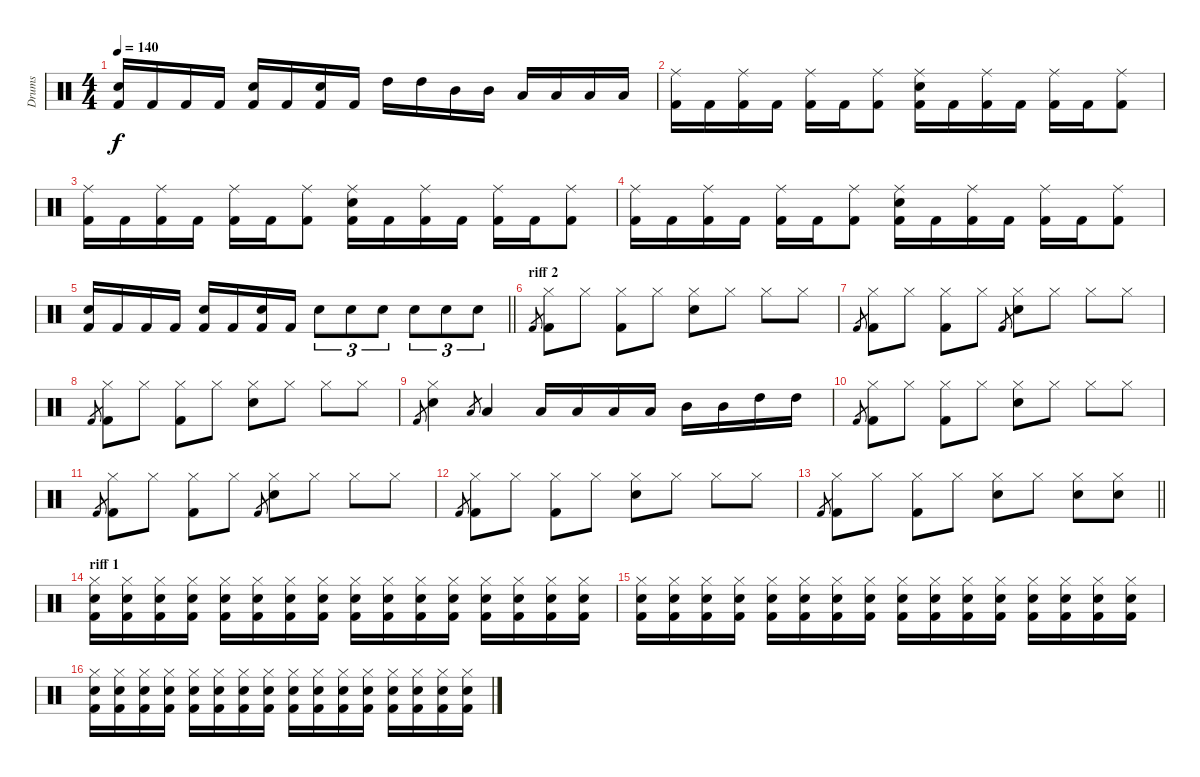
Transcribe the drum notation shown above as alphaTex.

\track ("Drums" "Drums") {instrument percussion}
\staff {score}
\articulation defaults
\ts (4 4)
\tempo 140
\clef neutral
\ks c
("Kick (hit) 2" "Snare (hit) 2").16{dy f} "Kick (hit) 2".16 "Kick (hit) 2".16 "Kick (hit) 2".16 ("Kick (hit) 2" "Snare (hit) 2").16 "Kick (hit) 2".16 ("Kick (hit) 2" "Snare (hit) 2").16 "Kick (hit) 2".16 "High Tom (hit)".16 "High Tom (hit)".16 "Mid Tom (hit)".16 "Mid Tom (hit)".16 "Low Tom (hit)".16 "Low Tom (hit)".16 "Low Floor Tom (hit)".16 "Low Floor Tom (hit)".16 |
("Kick (hit) 2" "Ride (middle)").16 "Kick (hit) 2".16 ("Kick (hit) 2" "Ride (middle)").16 "Kick (hit) 2".16 ("Kick (hit) 2" "Ride (middle)").16 "Kick (hit) 2".16 ("Kick (hit) 2" "Ride (middle)").8 ("Kick (hit) 2" "Snare (hit) 2" "Ride (middle)").16 "Kick (hit) 2".16 ("Kick (hit) 2" "Ride (middle)").16 "Kick (hit) 2".16 ("Kick (hit) 2" "Ride (middle)").16 "Kick (hit) 2".16 ("Kick (hit) 2" "Ride (middle)").8 |
("Kick (hit) 2" "Ride (middle)").16 "Kick (hit) 2".16 ("Kick (hit) 2" "Ride (middle)").16 "Kick (hit) 2".16 ("Kick (hit) 2" "Ride (middle)").16 "Kick (hit) 2".16 ("Kick (hit) 2" "Ride (middle)").8 ("Kick (hit) 2" "Snare (hit) 2" "Ride (middle)").16 "Kick (hit) 2".16 ("Kick (hit) 2" "Ride (middle)").16 "Kick (hit) 2".16 ("Kick (hit) 2" "Ride (middle)").16 "Kick (hit) 2".16 ("Kick (hit) 2" "Ride (middle)").8 |
("Kick (hit) 2" "Ride (middle)").16 "Kick (hit) 2".16 ("Kick (hit) 2" "Ride (middle)").16 "Kick (hit) 2".16 ("Kick (hit) 2" "Ride (middle)").16 "Kick (hit) 2".16 ("Kick (hit) 2" "Ride (middle)").8 ("Kick (hit) 2" "Snare (hit) 2" "Ride (middle)").16 "Kick (hit) 2".16 ("Kick (hit) 2" "Ride (middle)").16 "Kick (hit) 2".16 ("Kick (hit) 2" "Ride (middle)").16 "Kick (hit) 2".16 ("Kick (hit) 2" "Ride (middle)").8 |
\barLineRight lightlight
("Kick (hit) 2" "Snare (hit) 2").16 "Kick (hit) 2".16 "Kick (hit) 2".16 "Kick (hit) 2".16 ("Kick (hit) 2" "Snare (hit) 2").16 "Kick (hit) 2".16 ("Kick (hit) 2" "Snare (hit) 2").16 "Kick (hit) 2".16 "Snare (hit) 2".8{tu (3 2)} "Snare (hit) 2".8{tu (3 2)} "Snare (hit) 2".8{tu (3 2)} "Snare (hit) 2".8{tu (3 2)} "Snare (hit) 2".8{tu (3 2)} "Snare (hit) 2".8{tu (3 2)} |
\section ("" "riff 2")
"Kick (hit) 2".8{gr} ("Kick (hit) 2" "Hi-Hat (closed)").8 "Hi-Hat (closed)".8 ("Kick (hit) 2" "Hi-Hat (closed)").8 "Hi-Hat (closed)".8 ("Snare (hit) 2" "Hi-Hat (closed)").8 "Hi-Hat (closed)".8 "Hi-Hat (closed)".8 "Hi-Hat (closed)".8 |
"Kick (hit) 2".8{gr} ("Kick (hit) 2" "Hi-Hat (closed)").8 "Hi-Hat (closed)".8 ("Kick (hit) 2" "Hi-Hat (closed)").8 "Hi-Hat (closed)".8 "Kick (hit) 2".8{gr} ("Snare (hit) 2" "Hi-Hat (closed)").8 "Hi-Hat (closed)".8 "Hi-Hat (closed)".8 "Hi-Hat (closed)".8 |
"Kick (hit) 2".8{gr} ("Kick (hit) 2" "Hi-Hat (closed)").8 "Hi-Hat (closed)".8 ("Kick (hit) 2" "Hi-Hat (closed)").8 "Hi-Hat (closed)".8 ("Snare (hit) 2" "Hi-Hat (closed)").8 "Hi-Hat (closed)".8 "Hi-Hat (closed)".8 "Hi-Hat (closed)".8 |
"Kick (hit) 2".8{gr} ("Snare (hit) 2" "Hi-Hat (closed)").4 "Low Floor Tom (hit)".8{gr} "Low Floor Tom (hit)".4 "Low Floor Tom (hit)".16 "Low Floor Tom (hit)".16 "Low Tom (hit)".16 "Low Tom (hit)".16 "Mid Tom (hit)".16 "Mid Tom (hit)".16 "High Tom (hit)".16 "High Tom (hit)".16 |
"Kick (hit) 2".8{gr} ("Kick (hit) 2" "Hi-Hat (closed)").8 "Hi-Hat (closed)".8 ("Kick (hit) 2" "Hi-Hat (closed)").8 "Hi-Hat (closed)".8 ("Snare (hit) 2" "Hi-Hat (closed)").8 "Hi-Hat (closed)".8 "Hi-Hat (closed)".8 "Hi-Hat (closed)".8 |
"Kick (hit) 2".8{gr} ("Kick (hit) 2" "Hi-Hat (closed)").8 "Hi-Hat (closed)".8 ("Kick (hit) 2" "Hi-Hat (closed)").8 "Hi-Hat (closed)".8 "Kick (hit) 2".8{gr} ("Snare (hit) 2" "Hi-Hat (closed)").8 "Hi-Hat (closed)".8 "Hi-Hat (closed)".8 "Hi-Hat (closed)".8 |
"Kick (hit) 2".8{gr} ("Kick (hit) 2" "Hi-Hat (closed)").8 "Hi-Hat (closed)".8 ("Kick (hit) 2" "Hi-Hat (closed)").8 "Hi-Hat (closed)".8 ("Snare (hit) 2" "Hi-Hat (closed)").8 "Hi-Hat (closed)".8 "Hi-Hat (closed)".8 "Hi-Hat (closed)".8 |
\barLineRight lightlight "Kick (hit) 2".8{gr}
("Kick (hit) 2" "Hi-Hat (closed)").8 "Hi-Hat (closed)".8 ("Kick (hit) 2" "Hi-Hat (closed)").8 "Hi-Hat (closed)".8 ("Snare (hit) 2" "Hi-Hat (closed)").8 "Hi-Hat (closed)".8 ("Snare (hit) 2" "Hi-Hat (closed)").8 ("Snare (hit) 2" "Hi-Hat (closed)").8 |
\section ("" "riff 1")
("Kick (hit) 2" "Snare (hit) 2" "Hi-Hat (closed)").16 ("Kick (hit) 2" "Snare (hit) 2" "Hi-Hat (closed)").16 ("Kick (hit) 2" "Snare (hit) 2" "Hi-Hat (closed)").16 ("Kick (hit) 2" "Snare (hit) 2" "Hi-Hat (closed)").16 ("Kick (hit) 2" "Snare (hit) 2" "Hi-Hat (closed)").16 ("Kick (hit) 2" "Snare (hit) 2" "Hi-Hat (closed)").16 ("Kick (hit) 2" "Snare (hit) 2" "Hi-Hat (closed)").16 ("Kick (hit) 2" "Snare (hit) 2" "Hi-Hat (closed)").16 ("Kick (hit) 2" "Snare (hit) 2" "Hi-Hat (closed)").16 ("Kick (hit) 2" "Snare (hit) 2" "Hi-Hat (closed)").16 ("Kick (hit) 2" "Snare (hit) 2" "Hi-Hat (closed)").16 ("Kick (hit) 2" "Snare (hit) 2" "Hi-Hat (closed)").16 ("Kick (hit) 2" "Snare (hit) 2" "Hi-Hat (closed)").16 ("Kick (hit) 2" "Snare (hit) 2" "Hi-Hat (closed)").16 ("Kick (hit) 2" "Snare (hit) 2" "Hi-Hat (closed)").16 ("Kick (hit) 2" "Snare (hit) 2" "Hi-Hat (closed)").16 |
("Kick (hit) 2" "Snare (hit) 2" "Hi-Hat (closed)").16 ("Kick (hit) 2" "Snare (hit) 2" "Hi-Hat (closed)").16 ("Kick (hit) 2" "Snare (hit) 2" "Hi-Hat (closed)").16 ("Kick (hit) 2" "Snare (hit) 2" "Hi-Hat (closed)").16 ("Kick (hit) 2" "Snare (hit) 2" "Hi-Hat (closed)").16 ("Kick (hit) 2" "Snare (hit) 2" "Hi-Hat (closed)").16 ("Kick (hit) 2" "Snare (hit) 2" "Hi-Hat (closed)").16 ("Kick (hit) 2" "Snare (hit) 2" "Hi-Hat (closed)").16 ("Kick (hit) 2" "Snare (hit) 2" "Hi-Hat (closed)").16 ("Kick (hit) 2" "Snare (hit) 2" "Hi-Hat (closed)").16 ("Kick (hit) 2" "Snare (hit) 2" "Hi-Hat (closed)").16 ("Kick (hit) 2" "Snare (hit) 2" "Hi-Hat (closed)").16 ("Kick (hit) 2" "Snare (hit) 2" "Hi-Hat (closed)").16 ("Kick (hit) 2" "Snare (hit) 2" "Hi-Hat (closed)").16 ("Kick (hit) 2" "Snare (hit) 2" "Hi-Hat (closed)").16 ("Kick (hit) 2" "Snare (hit) 2" "Hi-Hat (closed)").16 |
("Kick (hit) 2" "Snare (hit) 2" "Hi-Hat (closed)").16 ("Kick (hit) 2" "Snare (hit) 2" "Hi-Hat (closed)").16 ("Kick (hit) 2" "Snare (hit) 2" "Hi-Hat (closed)").16 ("Kick (hit) 2" "Snare (hit) 2" "Hi-Hat (closed)").16 ("Kick (hit) 2" "Snare (hit) 2" "Hi-Hat (closed)").16 ("Kick (hit) 2" "Snare (hit) 2" "Hi-Hat (closed)").16 ("Kick (hit) 2" "Snare (hit) 2" "Hi-Hat (closed)").16 ("Kick (hit) 2" "Snare (hit) 2" "Hi-Hat (closed)").16 ("Kick (hit) 2" "Snare (hit) 2" "Hi-Hat (closed)").16 ("Kick (hit) 2" "Snare (hit) 2" "Hi-Hat (closed)").16 ("Kick (hit) 2" "Snare (hit) 2" "Hi-Hat (closed)").16 ("Kick (hit) 2" "Snare (hit) 2" "Hi-Hat (closed)").16 ("Kick (hit) 2" "Snare (hit) 2" "Hi-Hat (closed)").16 ("Kick (hit) 2" "Snare (hit) 2" "Hi-Hat (closed)").16 ("Kick (hit) 2" "Snare (hit) 2" "Hi-Hat (closed)").16 ("Kick (hit) 2" "Snare (hit) 2" "Hi-Hat (closed)").16
